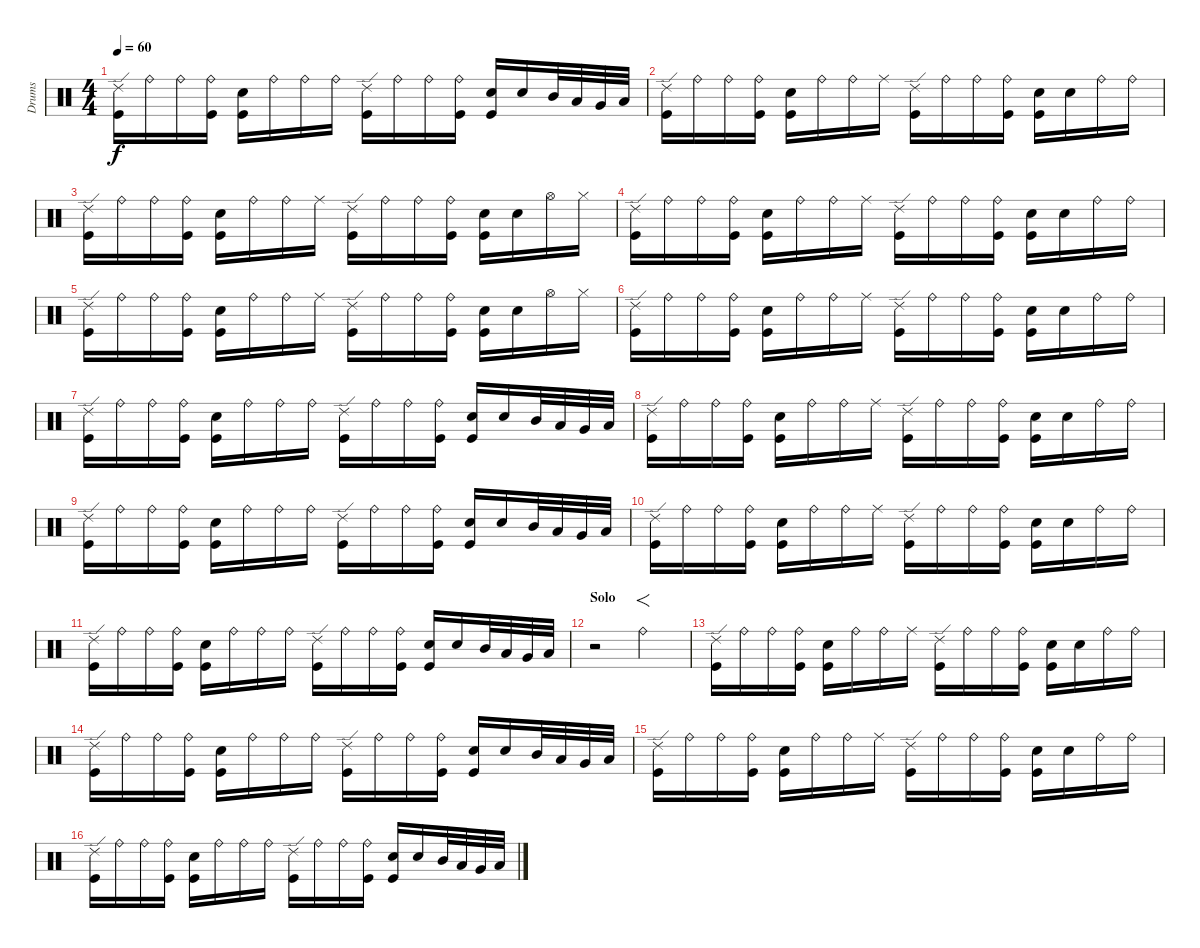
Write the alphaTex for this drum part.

\track ("Drums" "Drums") {instrument percussion}
\staff {score}
\articulation defaults
\ts (4 4)
\tempo 60
\clef neutral
\ks c
("Ride (edge) 2" "Kick (hit)").16{dy f} "Ride (bell)".16 "Ride (bell)".16 ("Ride (bell)" "Kick (hit)").16 ("Electric Snare (hit)" "Kick (hit)").16 "Ride (bell)".16 "Ride (bell)".16 "Ride (bell)".16 ("Ride (edge) 2" "Kick (hit)").16 "Ride (bell)".16 "Ride (bell)".16 ("Ride (bell)" "Kick (hit)").16 ("Electric Snare (hit)" "Kick (hit)").16 "Electric Snare (hit)".16 "Mid Tom (hit)".32 "Low Tom (hit)".32 "Very Low Tom (hit)".32 "Low Floor Tom (hit)".32 |
("Ride (edge) 2" "Kick (hit)").16 "Ride (bell)".16 "Ride (bell)".16 ("Ride (bell)" "Kick (hit)").16 ("Electric Snare (hit)" "Kick (hit)").16 "Ride (bell)".16 "Ride (bell)".16 "Ride (middle)".16 ("Ride (edge) 2" "Kick (hit)").16 "Ride (bell)".16 "Ride (bell)".16 ("Ride (bell)" "Kick (hit)").16 ("Electric Snare (hit)" "Kick (hit)").16 "Electric Snare (hit)".16 "Ride (bell)".16 "Ride (bell)".16 |
("Ride (edge) 2" "Kick (hit)").16 "Ride (bell)".16 "Ride (bell)".16 ("Ride (bell)" "Kick (hit)").16 ("Electric Snare (hit)" "Kick (hit)").16 "Ride (bell)".16 "Ride (bell)".16 "Ride (middle)".16 ("Ride (edge) 2" "Kick (hit)").16 "Ride (bell)".16 "Ride (bell)".16 ("Ride (bell)" "Kick (hit)").16 ("Electric Snare (hit)" "Kick (hit)").16 "Electric Snare (hit)".16 "Hi-Hat (open)".16 "Hi-Hat (closed)".16 |
("Ride (edge) 2" "Kick (hit)").16 "Ride (bell)".16 "Ride (bell)".16 ("Ride (bell)" "Kick (hit)").16 ("Electric Snare (hit)" "Kick (hit)").16 "Ride (bell)".16 "Ride (bell)".16 "Ride (middle)".16 ("Ride (edge) 2" "Kick (hit)").16 "Ride (bell)".16 "Ride (bell)".16 ("Ride (bell)" "Kick (hit)").16 ("Electric Snare (hit)" "Kick (hit)").16 "Electric Snare (hit)".16 "Ride (bell)".16 "Ride (bell)".16 |
("Ride (edge) 2" "Kick (hit)").16 "Ride (bell)".16 "Ride (bell)".16 ("Ride (bell)" "Kick (hit)").16 ("Electric Snare (hit)" "Kick (hit)").16 "Ride (bell)".16 "Ride (bell)".16 "Ride (middle)".16 ("Ride (edge) 2" "Kick (hit)").16 "Ride (bell)".16 "Ride (bell)".16 ("Ride (bell)" "Kick (hit)").16 ("Electric Snare (hit)" "Kick (hit)").16 "Electric Snare (hit)".16 "Hi-Hat (open)".16 "Hi-Hat (closed)".16 |
("Ride (edge) 2" "Kick (hit)").16 "Ride (bell)".16 "Ride (bell)".16 ("Ride (bell)" "Kick (hit)").16 ("Electric Snare (hit)" "Kick (hit)").16 "Ride (bell)".16 "Ride (bell)".16 "Ride (middle)".16 ("Ride (edge) 2" "Kick (hit)").16 "Ride (bell)".16 "Ride (bell)".16 ("Ride (bell)" "Kick (hit)").16 ("Electric Snare (hit)" "Kick (hit)").16 "Electric Snare (hit)".16 "Ride (bell)".16 "Ride (bell)".16 |
("Ride (edge) 2" "Kick (hit)").16 "Ride (bell)".16 "Ride (bell)".16 ("Ride (bell)" "Kick (hit)").16 ("Electric Snare (hit)" "Kick (hit)").16 "Ride (bell)".16 "Ride (bell)".16 "Ride (bell)".16 ("Ride (edge) 2" "Kick (hit)").16 "Ride (bell)".16 "Ride (bell)".16 ("Ride (bell)" "Kick (hit)").16 ("Electric Snare (hit)" "Kick (hit)").16 "Electric Snare (hit)".16 "Mid Tom (hit)".32 "Low Tom (hit)".32 "Very Low Tom (hit)".32 "Low Floor Tom (hit)".32 |
("Ride (edge) 2" "Kick (hit)").16 "Ride (bell)".16 "Ride (bell)".16 ("Ride (bell)" "Kick (hit)").16 ("Electric Snare (hit)" "Kick (hit)").16 "Ride (bell)".16 "Ride (bell)".16 "Ride (middle)".16 ("Ride (edge) 2" "Kick (hit)").16 "Ride (bell)".16 "Ride (bell)".16 ("Ride (bell)" "Kick (hit)").16 ("Electric Snare (hit)" "Kick (hit)").16 "Electric Snare (hit)".16 "Ride (bell)".16 "Ride (bell)".16 |
("Ride (edge) 2" "Kick (hit)").16 "Ride (bell)".16 "Ride (bell)".16 ("Ride (bell)" "Kick (hit)").16 ("Electric Snare (hit)" "Kick (hit)").16 "Ride (bell)".16 "Ride (bell)".16 "Ride (bell)".16 ("Ride (edge) 2" "Kick (hit)").16 "Ride (bell)".16 "Ride (bell)".16 ("Ride (bell)" "Kick (hit)").16 ("Electric Snare (hit)" "Kick (hit)").16 "Electric Snare (hit)".16 "Mid Tom (hit)".32 "Low Tom (hit)".32 "Very Low Tom (hit)".32 "Low Floor Tom (hit)".32 |
("Ride (edge) 2" "Kick (hit)").16 "Ride (bell)".16 "Ride (bell)".16 ("Ride (bell)" "Kick (hit)").16 ("Electric Snare (hit)" "Kick (hit)").16 "Ride (bell)".16 "Ride (bell)".16 "Ride (middle)".16 ("Ride (edge) 2" "Kick (hit)").16 "Ride (bell)".16 "Ride (bell)".16 ("Ride (bell)" "Kick (hit)").16 ("Electric Snare (hit)" "Kick (hit)").16 "Electric Snare (hit)".16 "Ride (bell)".16 "Ride (bell)".16 |
("Ride (edge) 2" "Kick (hit)").16 "Ride (bell)".16 "Ride (bell)".16 ("Ride (bell)" "Kick (hit)").16 ("Electric Snare (hit)" "Kick (hit)").16 "Ride (bell)".16 "Ride (bell)".16 "Ride (bell)".16 ("Ride (edge) 2" "Kick (hit)").16 "Ride (bell)".16 "Ride (bell)".16 ("Ride (bell)" "Kick (hit)").16 ("Electric Snare (hit)" "Kick (hit)").16 "Electric Snare (hit)".16 "Mid Tom (hit)".32 "Low Tom (hit)".32 "Very Low Tom (hit)".32 "Low Floor Tom (hit)".32 |
\section ("" "Solo")
r.2 "Ride (bell)"{tr (51 64)}.2{f} |
("Ride (edge) 2" "Kick (hit)").16 "Ride (bell)".16 "Ride (bell)".16 ("Ride (bell)" "Kick (hit)").16 ("Electric Snare (hit)" "Kick (hit)").16 "Ride (bell)".16 "Ride (bell)".16 "Ride (middle)".16 ("Ride (edge) 2" "Kick (hit)").16 "Ride (bell)".16 "Ride (bell)".16 ("Ride (bell)" "Kick (hit)").16 ("Electric Snare (hit)" "Kick (hit)").16 "Electric Snare (hit)".16 "Ride (bell)".16 "Ride (bell)".16 |
("Ride (edge) 2" "Kick (hit)").16 "Ride (bell)".16 "Ride (bell)".16 ("Ride (bell)" "Kick (hit)").16 ("Electric Snare (hit)" "Kick (hit)").16 "Ride (bell)".16 "Ride (bell)".16 "Ride (bell)".16 ("Ride (edge) 2" "Kick (hit)").16 "Ride (bell)".16 "Ride (bell)".16 ("Ride (bell)" "Kick (hit)").16 ("Electric Snare (hit)" "Kick (hit)").16 "Electric Snare (hit)".16 "Mid Tom (hit)".32 "Low Tom (hit)".32 "Very Low Tom (hit)".32 "Low Floor Tom (hit)".32 |
("Ride (edge) 2" "Kick (hit)").16 "Ride (bell)".16 "Ride (bell)".16 ("Ride (bell)" "Kick (hit)").16 ("Electric Snare (hit)" "Kick (hit)").16 "Ride (bell)".16 "Ride (bell)".16 "Ride (middle)".16 ("Ride (edge) 2" "Kick (hit)").16 "Ride (bell)".16 "Ride (bell)".16 ("Ride (bell)" "Kick (hit)").16 ("Electric Snare (hit)" "Kick (hit)").16 "Electric Snare (hit)".16 "Ride (bell)".16 "Ride (bell)".16 |
("Ride (edge) 2" "Kick (hit)").16 "Ride (bell)".16 "Ride (bell)".16 ("Ride (bell)" "Kick (hit)").16 ("Electric Snare (hit)" "Kick (hit)").16 "Ride (bell)".16 "Ride (bell)".16 "Ride (bell)".16 ("Ride (edge) 2" "Kick (hit)").16 "Ride (bell)".16 "Ride (bell)".16 ("Ride (bell)" "Kick (hit)").16 ("Electric Snare (hit)" "Kick (hit)").16 "Electric Snare (hit)".16 "Mid Tom (hit)".32 "Low Tom (hit)".32 "Very Low Tom (hit)".32 "Low Floor Tom (hit)".32
